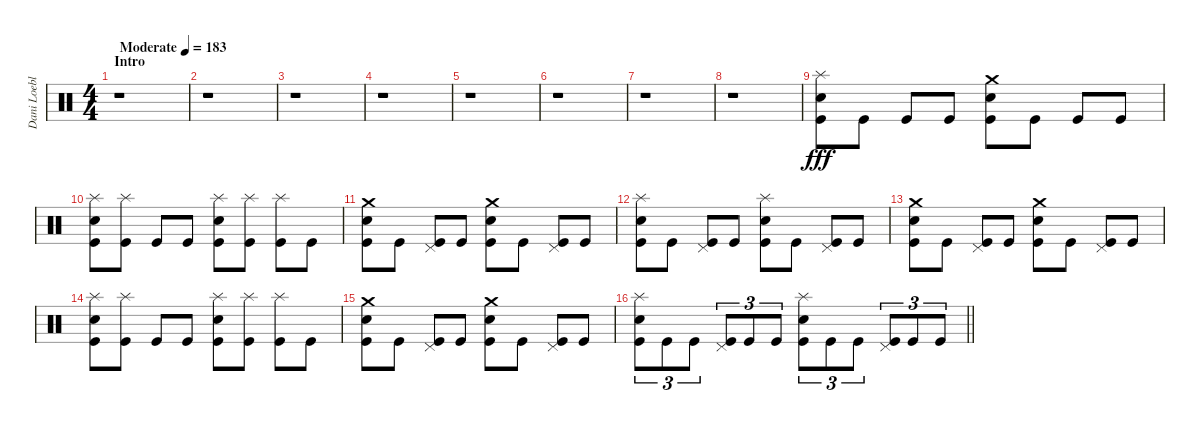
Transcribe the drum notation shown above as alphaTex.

\track ("Dani Loeble" "Dani Loebl") {instrument percussion}
\staff {score}
\articulation defaults
\ts (4 4)
\section ("" "Intro")
\tempo (183 "Moderate")
\clef neutral
\ks c
r.1{dy fff} |
r.1 |
r.1 |
r.1 |
r.1 |
r.1 |
r.1 |
r.1 |
("Splash (hit)" "Electric Snare (hit)" "Kick (hit)").8 "Kick (hit)".8 "Kick (hit)".8 "Kick (hit)".8 ("Crash medium (hit)" "Electric Snare (hit)" "Kick (hit)").8 "Kick (hit)".8 "Kick (hit)".8 "Kick (hit)".8 |
("Splash (hit)" "Electric Snare (hit)" "Kick (hit)").8 ("Splash (hit)" "Kick (hit)").8 "Kick (hit)".8 "Kick (hit)".8 ("Splash (hit)" "Electric Snare (hit)" "Kick (hit)").8 ("Splash (hit)" "Kick (hit)").8 ("Splash (hit)" "Kick (hit)").8 "Kick (hit)".8 |
("Crash medium (hit)" "Electric Snare (hit)" "Kick (hit)").8 "Kick (hit)".8 ("Pedal Hi-Hat (hit)" "Kick (hit)").8 "Kick (hit)".8 ("Crash medium (hit)" "Electric Snare (hit)" "Kick (hit)").8 "Kick (hit)".8 ("Pedal Hi-Hat (hit)" "Kick (hit)").8 "Kick (hit)".8 |
("Splash (hit)" "Electric Snare (hit)" "Kick (hit)").8 "Kick (hit)".8 ("Pedal Hi-Hat (hit)" "Kick (hit)").8 "Kick (hit)".8 ("Splash (hit)" "Electric Snare (hit)" "Kick (hit)").8 "Kick (hit)".8 ("Pedal Hi-Hat (hit)" "Kick (hit)").8 "Kick (hit)".8 |
("Crash medium (hit)" "Electric Snare (hit)" "Kick (hit)").8 "Kick (hit)".8 ("Pedal Hi-Hat (hit)" "Kick (hit)").8 "Kick (hit)".8 ("Crash medium (hit)" "Electric Snare (hit)" "Kick (hit)").8 "Kick (hit)".8 ("Pedal Hi-Hat (hit)" "Kick (hit)").8 "Kick (hit)".8 |
("Splash (hit)" "Electric Snare (hit)" "Kick (hit)").8 ("Splash (hit)" "Kick (hit)").8 "Kick (hit)".8 "Kick (hit)".8 ("Splash (hit)" "Electric Snare (hit)" "Kick (hit)").8 ("Splash (hit)" "Kick (hit)").8 ("Splash (hit)" "Kick (hit)").8 "Kick (hit)".8 |
("Crash medium (hit)" "Electric Snare (hit)" "Kick (hit)").8 "Kick (hit)".8 ("Pedal Hi-Hat (hit)" "Kick (hit)").8 "Kick (hit)".8 ("Crash medium (hit)" "Electric Snare (hit)" "Kick (hit)").8 "Kick (hit)".8 ("Pedal Hi-Hat (hit)" "Kick (hit)").8 "Kick (hit)".8 |
\barLineRight lightlight
("Splash (hit)" "Electric Snare (hit)" "Kick (hit)").8{tu (3 2)} "Kick (hit)".8{tu (3 2)} "Kick (hit)".8{tu (3 2)} ("Pedal Hi-Hat (hit)" "Kick (hit)").8{tu (3 2)} "Kick (hit)".8{tu (3 2)} "Kick (hit)".8{tu (3 2)} ("Splash (hit)" "Electric Snare (hit)" "Kick (hit)").8{tu (3 2)} "Kick (hit)".8{tu (3 2)} "Kick (hit)".8{tu (3 2)} ("Pedal Hi-Hat (hit)" "Kick (hit)").8{tu (3 2)} "Kick (hit)".8{tu (3 2)} "Kick (hit)".8{tu (3 2)}
